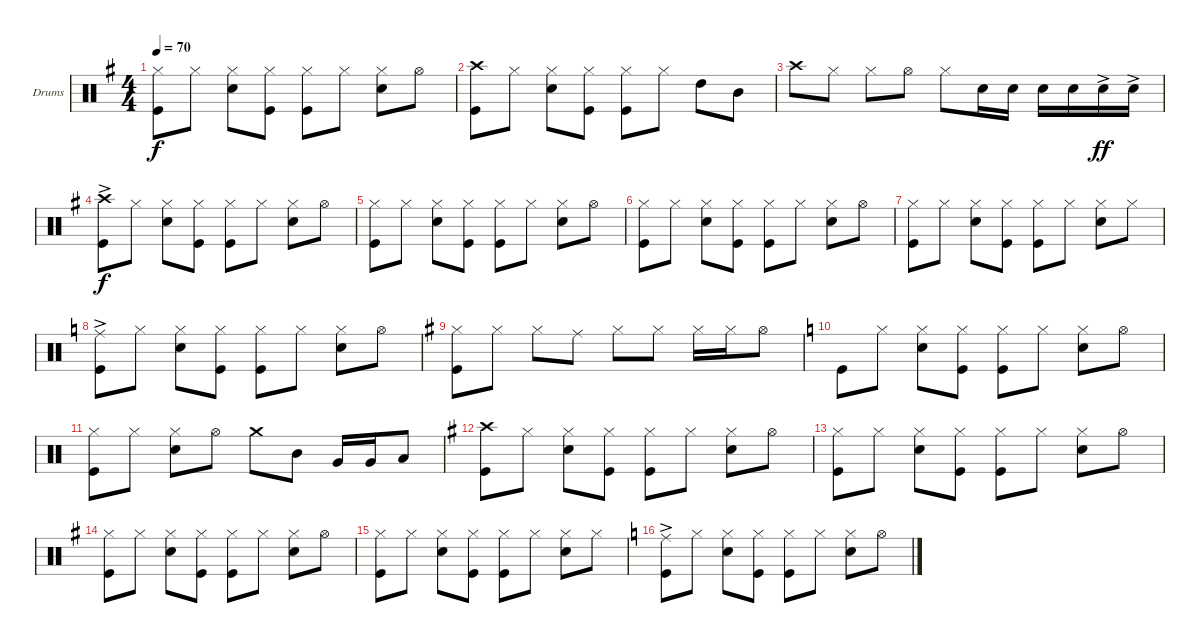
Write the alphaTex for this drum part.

\bracketExtendMode groupsimilarinstruments
\firstSystemTrackNameOrientation horizontal
\otherSystemsTrackNameOrientation horizontal
\track ("Drumkit" "Drums") {instrument percussion}
\staff {score}
\articulation defaults
\ts (4 4)
\tempo 70
\clef neutral
\ks g
("Hi-Hat (closed)" "Kick (hit)").8{dy f} "Hi-Hat (closed)".8 ("Hi-Hat (closed)" "Snare (hit) 2").8 ("Hi-Hat (closed)" "Kick (hit)").8 ("Hi-Hat (closed)" "Kick (hit)").8 "Hi-Hat (closed)".8 ("Hi-Hat (closed)" "Snare (hit) 2").8 "Hi-Hat (open)".8 |
("Crash high (hit)" "Kick (hit)").8 "Hi-Hat (closed)".8 ("Hi-Hat (closed)" "Snare (hit) 2").8 ("Hi-Hat (closed)" "Kick (hit)").8 ("Hi-Hat (closed)" "Kick (hit)").8 "Hi-Hat (closed)".8 "High Tom (hit)".8 "Mid Tom (hit)".8 |
"Crash high (hit)".8 "Hi-Hat (closed)".8 "Hi-Hat (closed)".8 "Hi-Hat (open)".8 "Hi-Hat (closed)".8 "Snare (hit) 2".16 "Snare (hit) 2".16 "Snare (hit) 2".16 "Snare (hit) 2".16 "Snare (hit) 2"{ac}.16{dy ff} "Snare (hit) 2"{ac}.16 |
("Crash high (hit)"{ac} "Kick (hit)").8{dy f} "Hi-Hat (closed)".8 ("Hi-Hat (closed)" "Snare (hit) 2").8 ("Hi-Hat (closed)" "Kick (hit)").8 ("Hi-Hat (closed)" "Kick (hit)").8 "Hi-Hat (closed)".8 ("Hi-Hat (closed)" "Snare (hit) 2").8 "Hi-Hat (open)".8 |
("Hi-Hat (closed)" "Kick (hit)").8 "Hi-Hat (closed)".8 ("Hi-Hat (closed)" "Snare (hit) 2").8 ("Hi-Hat (closed)" "Kick (hit)").8 ("Hi-Hat (closed)" "Kick (hit)").8 "Hi-Hat (closed)".8 ("Hi-Hat (closed)" "Snare (hit) 2").8 "Hi-Hat (open)".8 |
("Hi-Hat (closed)" "Kick (hit)").8 "Hi-Hat (closed)".8 ("Hi-Hat (closed)" "Snare (hit) 2").8 ("Hi-Hat (closed)" "Kick (hit)").8 ("Hi-Hat (closed)" "Kick (hit)").8 "Hi-Hat (closed)".8 ("Hi-Hat (closed)" "Snare (hit) 2").8 "Hi-Hat (open)".8 |
("Hi-Hat (closed)" "Kick (hit)").8 "Hi-Hat (closed)".8 ("Hi-Hat (closed)" "Snare (hit) 2").8 ("Hi-Hat (closed)" "Kick (hit)").8 ("Hi-Hat (closed)" "Kick (hit)").8 "Hi-Hat (closed)".8 ("Hi-Hat (closed)" "Snare (hit) 2").8 "Hi-Hat (closed)".8 |
\ks c
("Ride (middle)"{ac} "Kick (hit)").8 "Hi-Hat (closed)".8 ("Hi-Hat (closed)" "Snare (hit) 2").8 ("Hi-Hat (closed)" "Kick (hit)").8 ("Hi-Hat (closed)" "Kick (hit)").8 "Hi-Hat (closed)".8 ("Hi-Hat (closed)" "Snare (hit) 2").8 "Hi-Hat (open)".8 |
\ks g
("Hi-Hat (closed)" "Kick (hit)").8 "Hi-Hat (closed)".8 "Hi-Hat (closed)".8 "Ride (middle)".8 "Hi-Hat (closed)".8 "Hi-Hat (closed)".8 "Hi-Hat (closed)".16 "Hi-Hat (closed)".16 "Hi-Hat (open)".8 |
\ks c "Kick (hit)".8 "Hi-Hat (closed)".8
("Hi-Hat (closed)" "Snare (hit) 2").8 ("Hi-Hat (closed)" "Kick (hit)").8 ("Hi-Hat (closed)" "Kick (hit)").8 "Hi-Hat (closed)".8 ("Hi-Hat (closed)" "Snare (hit) 2").8 "Hi-Hat (open)".8 |
("Hi-Hat (closed)" "Kick (hit)").8 "Hi-Hat (closed)".8 ("Hi-Hat (closed)" "Snare (hit) 2").8 "Hi-Hat (open)".8 "Crash medium (hit)".8 "Mid Tom (hit)".8 "Very Low Tom (hit)".16 "Very Low Tom (hit)".16 "Low Tom (hit)".8 |
\ks g
("Crash high (hit)" "Kick (hit)").8 "Hi-Hat (closed)".8 ("Hi-Hat (closed)" "Snare (hit) 2").8 ("Hi-Hat (closed)" "Kick (hit)").8 ("Hi-Hat (closed)" "Kick (hit)").8 "Hi-Hat (closed)".8 ("Hi-Hat (closed)" "Snare (hit) 2").8 "Hi-Hat (open)".8 |
("Hi-Hat (closed)" "Kick (hit)").8 "Hi-Hat (closed)".8 ("Hi-Hat (closed)" "Snare (hit) 2").8 ("Hi-Hat (closed)" "Kick (hit)").8 ("Hi-Hat (closed)" "Kick (hit)").8 "Hi-Hat (closed)".8 ("Hi-Hat (closed)" "Snare (hit) 2").8 "Hi-Hat (open)".8 |
("Hi-Hat (closed)" "Kick (hit)").8 "Hi-Hat (closed)".8 ("Hi-Hat (closed)" "Snare (hit) 2").8 ("Hi-Hat (closed)" "Kick (hit)").8 ("Hi-Hat (closed)" "Kick (hit)").8 "Hi-Hat (closed)".8 ("Hi-Hat (closed)" "Snare (hit) 2").8 "Hi-Hat (open)".8 |
("Hi-Hat (closed)" "Kick (hit)").8 "Hi-Hat (closed)".8 ("Hi-Hat (closed)" "Snare (hit) 2").8 ("Hi-Hat (closed)" "Kick (hit)").8 ("Hi-Hat (closed)" "Kick (hit)").8 "Hi-Hat (closed)".8 ("Hi-Hat (closed)" "Snare (hit) 2").8 "Hi-Hat (closed)".8 |
\ks c
("Ride (middle)"{ac} "Kick (hit)").8 "Hi-Hat (closed)".8 ("Hi-Hat (closed)" "Snare (hit) 2").8 ("Hi-Hat (closed)" "Kick (hit)").8 ("Hi-Hat (closed)" "Kick (hit)").8 "Hi-Hat (closed)".8 ("Hi-Hat (closed)" "Snare (hit) 2").8 "Hi-Hat (open)".8
